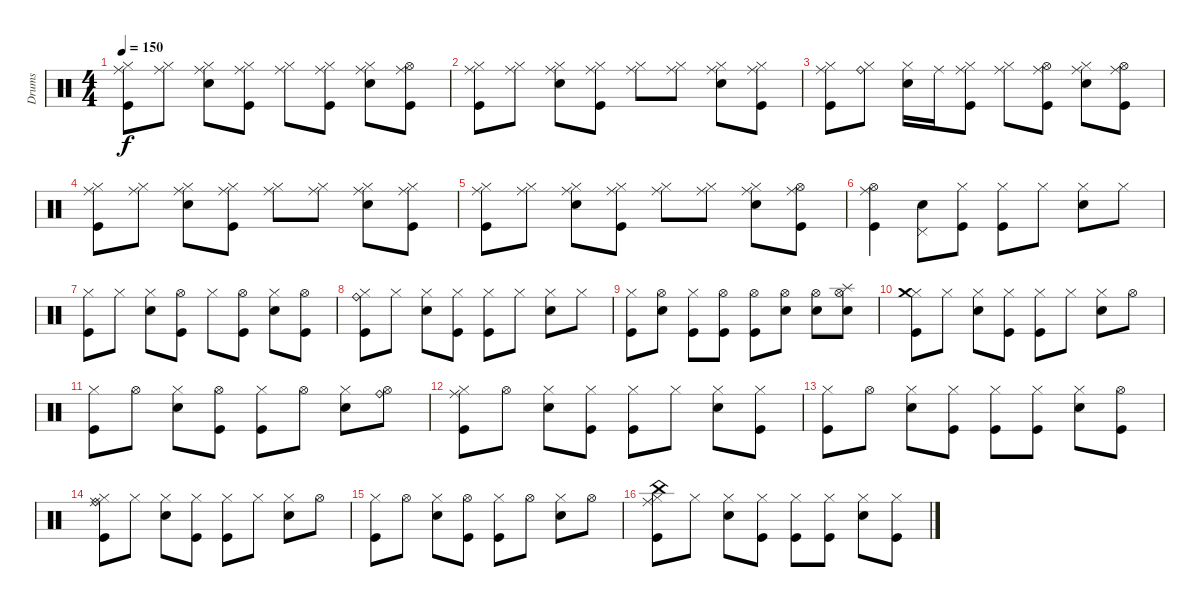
\track ("Drums" "Drums") {instrument percussion}
\staff {score}
\articulation defaults
\ts (4 4)
\tempo 150
\clef neutral
\ks c
("Hi-Hat (closed)" "Ride (middle)" "Kick (hit)").8{dy f} ("Hi-Hat (closed)" "Ride (middle)").8 ("Ride (middle)" "Snare (hit) 2" "Hi-Hat (closed)").8 ("Kick (hit)" "Hi-Hat (closed)" "Ride (middle)").8 ("Hi-Hat (closed)" "Ride (middle)").8 ("Kick (hit)" "Hi-Hat (closed)" "Ride (middle)").8 ("Ride (middle)" "Snare (hit) 2" "Hi-Hat (closed)").8 ("Hi-Hat (open)" "Ride (middle)" "Kick (hit)").8 |
("Hi-Hat (closed)" "Ride (middle)" "Kick (hit)").8 ("Hi-Hat (closed)" "Ride (middle)").8 ("Ride (middle)" "Snare (hit) 2" "Hi-Hat (closed)").8 ("Hi-Hat (closed)" "Ride (middle)" "Kick (hit)").8 ("Hi-Hat (closed)" "Ride (middle)").8 ("Hi-Hat (closed)" "Ride (middle)").8 ("Ride (middle)" "Snare (hit) 2" "Hi-Hat (closed)").8 ("Kick (hit)" "Hi-Hat (closed)" "Ride (middle)").8 |
("Ride (middle)" "Kick (hit)" "Hi-Hat (closed)").8 ("Hi-Hat (closed)" "Ride (bell)").8 ("Snare (hit) 2" "Hi-Hat (closed)").16 "Ride (middle)".16 ("Hi-Hat (closed)" "Ride (middle)" "Kick (hit)").8 ("Hi-Hat (closed)" "Ride (middle)").8 ("Ride (middle)" "Kick (hit)" "Hi-Hat (open)").8 ("Snare (hit) 2" "Hi-Hat (closed)" "Ride (middle)").8 ("Ride (middle)" "Kick (hit)" "Hi-Hat (open)").8 |
("Kick (hit)" "Hi-Hat (closed)" "Ride (middle)").8 ("Hi-Hat (closed)" "Ride (middle)").8 ("Ride (middle)" "Snare (hit) 2" "Hi-Hat (closed)").8 ("Ride (middle)" "Kick (hit)" "Hi-Hat (closed)").8 ("Hi-Hat (closed)" "Ride (middle)").8 ("Hi-Hat (closed)" "Ride (middle)").8 ("Ride (middle)" "Snare (hit) 2" "Hi-Hat (closed)").8 ("Kick (hit)" "Hi-Hat (closed)" "Ride (middle)").8 |
("Ride (middle)" "Kick (hit)" "Hi-Hat (closed)").8 ("Hi-Hat (closed)" "Ride (middle)").8 ("Snare (hit) 2" "Hi-Hat (closed)" "Ride (middle)").8 ("Kick (hit)" "Hi-Hat (closed)" "Ride (middle)").8 ("Hi-Hat (closed)" "Ride (middle)").8 ("Hi-Hat (closed)" "Ride (middle)").8 ("Snare (hit) 2" "Hi-Hat (closed)" "Ride (middle)").8 ("Ride (middle)" "Kick (hit)" "Hi-Hat (open)").8 |
("Kick (hit)" "Hi-Hat (open)" "Ride (middle)").4 ("Snare (hit) 2" "Pedal Hi-Hat (hit)").8 ("Kick (hit)" "Hi-Hat (closed)").8 ("Kick (hit)" "Hi-Hat (closed)").8 "Hi-Hat (closed)".8 ("Snare (hit) 2" "Hi-Hat (closed)").8 "Hi-Hat (closed)".8 |
("Kick (hit)" "Hi-Hat (closed)").8 "Hi-Hat (closed)".8 ("Snare (hit) 2" "Hi-Hat (closed)").8 ("Kick (hit)" "Hi-Hat (open)").8 "Hi-Hat (closed)".8 ("Kick (hit)" "Hi-Hat (open)").8 ("Snare (hit) 2" "Hi-Hat (closed)").8 ("Kick (hit)" "Hi-Hat (open)").8 |
("Kick (hit)" "Hi-Hat (closed)" "Ride (bell)").8 "Hi-Hat (closed)".8 ("Snare (hit) 2" "Hi-Hat (closed)").8 ("Kick (hit)" "Hi-Hat (closed)").8 ("Kick (hit)" "Hi-Hat (closed)").8 "Hi-Hat (closed)".8 ("Snare (hit) 2" "Hi-Hat (closed)").8 "Hi-Hat (closed)".8 |
("Kick (hit)" "Hi-Hat (closed)").8 ("Snare (hit) 2" "Hi-Hat (open)").8 ("Kick (hit)" "Hi-Hat (closed)").8 ("Kick (hit)" "Hi-Hat (open)").8 ("Kick (hit)" "Hi-Hat (open)").8 ("Snare (hit) 2" "Hi-Hat (open)").8 ("Snare (hit) 2" "Hi-Hat (open)").8 ("Snare (hit) 2" "Hi-Hat (open)" "Splash (hit)").8 |
("Kick (hit)" "Hi-Hat (closed)" "Crash medium (hit)").8 "Hi-Hat (closed)".8 ("Snare (hit) 2" "Hi-Hat (closed)").8 ("Kick (hit)" "Hi-Hat (closed)").8 ("Kick (hit)" "Hi-Hat (closed)").8 "Hi-Hat (closed)".8 ("Snare (hit) 2" "Hi-Hat (closed)").8 "Hi-Hat (open)".8 |
("Kick (hit)" "Hi-Hat (closed)").8 "Hi-Hat (open)".8 ("Snare (hit) 2" "Hi-Hat (closed)").8 ("Kick (hit)" "Hi-Hat (open)").8 ("Kick (hit)" "Hi-Hat (closed)").8 "Hi-Hat (open)".8 ("Snare (hit) 2" "Hi-Hat (closed)").8 ("Hi-Hat (open)" "Ride (bell)").8 |
("Kick (hit)" "Hi-Hat (closed)" "Ride (middle)").8 "Hi-Hat (open)".8 ("Snare (hit) 2" "Hi-Hat (closed)").8 ("Kick (hit)" "Hi-Hat (closed)").8 ("Kick (hit)" "Hi-Hat (closed)").8 "Hi-Hat (closed)".8 ("Snare (hit) 2" "Hi-Hat (closed)").8 ("Kick (hit)" "Hi-Hat (closed)").8 |
("Kick (hit)" "Hi-Hat (closed)").8 "Hi-Hat (open)".8 ("Snare (hit) 2" "Hi-Hat (closed)").8 ("Kick (hit)" "Hi-Hat (closed)").8 ("Kick (hit)" "Hi-Hat (closed)").8 ("Kick (hit)" "Hi-Hat (closed)").8 ("Snare (hit) 2" "Hi-Hat (closed)").8 ("Kick (hit)" "Hi-Hat (open)").8 |
("Kick (hit)" "Hi-Hat (closed)" "Ride (middle)" "Ride (bell)").8 "Hi-Hat (closed)".8 ("Snare (hit) 2" "Hi-Hat (closed)").8 ("Kick (hit)" "Hi-Hat (closed)").8 ("Kick (hit)" "Hi-Hat (closed)").8 "Hi-Hat (closed)".8 ("Snare (hit) 2" "Hi-Hat (closed)").8 "Hi-Hat (open)".8 |
("Kick (hit)" "Hi-Hat (closed)").8 "Hi-Hat (open)".8 ("Snare (hit) 2" "Hi-Hat (closed)").8 ("Kick (hit)" "Hi-Hat (open)").8 ("Kick (hit)" "Hi-Hat (closed)").8 "Hi-Hat (open)".8 ("Snare (hit) 2" "Hi-Hat (closed)").8 "Hi-Hat (open)".8 |
("Kick (hit)" "Hi-Hat (closed)" "Ride (middle)" "China (hit)").8 "Hi-Hat (closed)".8 ("Snare (hit) 2" "Hi-Hat (closed)").8 ("Kick (hit)" "Hi-Hat (closed)").8 ("Kick (hit)" "Hi-Hat (closed)").8 ("Kick (hit)" "Hi-Hat (closed)").8 ("Snare (hit) 2" "Hi-Hat (closed)").8 ("Kick (hit)" "Hi-Hat (closed)").8
